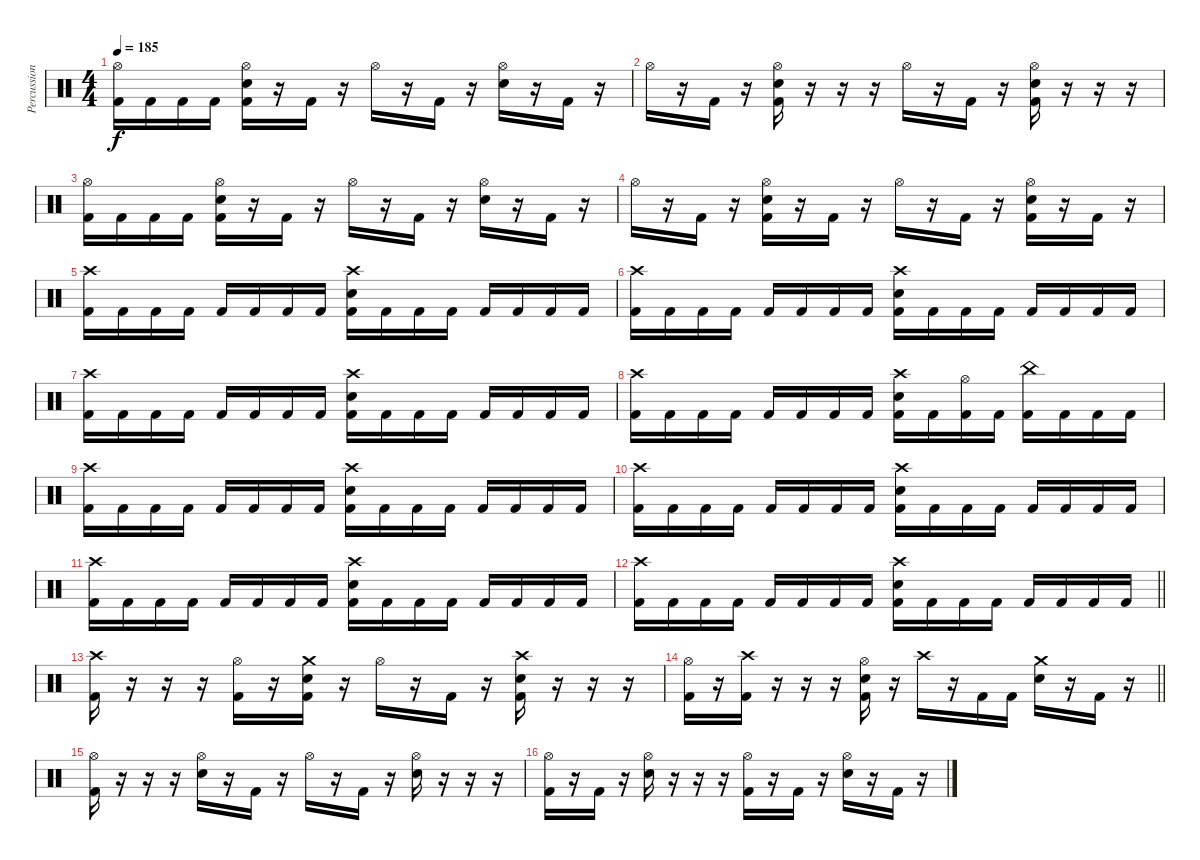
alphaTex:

\track ("Percussion" "Percussion") {instrument percussion}
\staff {score}
\articulation defaults
\ts (4 4)
\tempo 185
\clef neutral
\ks c
("Hi-Hat (open)" "Kick (hit) 2").16{dy f} "Kick (hit) 2".16 "Kick (hit) 2".16 "Kick (hit) 2".16 ("Hi-Hat (open)" "Electric Snare (hit)" "Kick (hit) 2").16 r.16 "Kick (hit) 2".16 r.16 "Hi-Hat (open)".16 r.16 "Kick (hit) 2".16 r.16 ("Hi-Hat (open)" "Electric Snare (hit)").16 r.16 "Kick (hit) 2".16 r.16 |
"Hi-Hat (open)".16 r.16 "Kick (hit) 2".16 r.16 ("Hi-Hat (open)" "Electric Snare (hit)" "Kick (hit) 2").16 r.16 r.16 r.16 "Hi-Hat (open)".16 r.16 "Kick (hit) 2".16 r.16 ("Hi-Hat (open)" "Electric Snare (hit)" "Kick (hit) 2").16 r.16 r.16 r.16 |
("Hi-Hat (open)" "Kick (hit) 2").16 "Kick (hit) 2".16 "Kick (hit) 2".16 "Kick (hit) 2".16 ("Hi-Hat (open)" "Electric Snare (hit)" "Kick (hit) 2").16 r.16 "Kick (hit) 2".16 r.16 "Hi-Hat (open)".16 r.16 "Kick (hit) 2".16 r.16 ("Hi-Hat (open)" "Electric Snare (hit)").16 r.16 "Kick (hit) 2".16 r.16 |
"Hi-Hat (open)".16 r.16 "Kick (hit) 2".16 r.16 ("Hi-Hat (open)" "Electric Snare (hit)" "Kick (hit) 2").16 r.16 "Kick (hit) 2".16 r.16 "Hi-Hat (open)".16 r.16 "Kick (hit) 2".16 r.16 ("Hi-Hat (open)" "Electric Snare (hit)" "Kick (hit) 2").16 r.16 "Kick (hit) 2".16 r.16 |
("Crash high (hit)" "Kick (hit) 2").16 "Kick (hit) 2".16 "Kick (hit) 2".16 "Kick (hit) 2".16 "Kick (hit) 2".16 "Kick (hit) 2".16 "Kick (hit) 2".16 "Kick (hit) 2".16 ("Crash high (hit)" "Electric Snare (hit)" "Kick (hit) 2").16 "Kick (hit) 2".16 "Kick (hit) 2".16 "Kick (hit) 2".16 "Kick (hit) 2".16 "Kick (hit) 2".16 "Kick (hit) 2".16 "Kick (hit) 2".16 |
("Crash high (hit)" "Kick (hit) 2").16 "Kick (hit) 2".16 "Kick (hit) 2".16 "Kick (hit) 2".16 "Kick (hit) 2".16 "Kick (hit) 2".16 "Kick (hit) 2".16 "Kick (hit) 2".16 ("Crash high (hit)" "Electric Snare (hit)" "Kick (hit) 2").16 "Kick (hit) 2".16 "Kick (hit) 2".16 "Kick (hit) 2".16 "Kick (hit) 2".16 "Kick (hit) 2".16 "Kick (hit) 2".16 "Kick (hit) 2".16 |
("Crash high (hit)" "Kick (hit) 2").16 "Kick (hit) 2".16 "Kick (hit) 2".16 "Kick (hit) 2".16 "Kick (hit) 2".16 "Kick (hit) 2".16 "Kick (hit) 2".16 "Kick (hit) 2".16 ("Crash high (hit)" "Electric Snare (hit)" "Kick (hit) 2").16 "Kick (hit) 2".16 "Kick (hit) 2".16 "Kick (hit) 2".16 "Kick (hit) 2".16 "Kick (hit) 2".16 "Kick (hit) 2".16 "Kick (hit) 2".16 |
("Crash high (hit)" "Kick (hit) 2").16 "Kick (hit) 2".16 "Kick (hit) 2".16 "Kick (hit) 2".16 "Kick (hit) 2".16 "Kick (hit) 2".16 "Kick (hit) 2".16 "Kick (hit) 2".16 ("Crash high (hit)" "Electric Snare (hit)" "Kick (hit) 2").16 "Kick (hit) 2".16 ("Hi-Hat (open)" "Kick (hit) 2").16 "Kick (hit) 2".16 ("China (hit)" "Kick (hit) 2").16 "Kick (hit) 2".16 "Kick (hit) 2".16 "Kick (hit) 2".16 |
("Crash high (hit)" "Kick (hit) 2").16 "Kick (hit) 2".16 "Kick (hit) 2".16 "Kick (hit) 2".16 "Kick (hit) 2".16 "Kick (hit) 2".16 "Kick (hit) 2".16 "Kick (hit) 2".16 ("Crash high (hit)" "Electric Snare (hit)" "Kick (hit) 2").16 "Kick (hit) 2".16 "Kick (hit) 2".16 "Kick (hit) 2".16 "Kick (hit) 2".16 "Kick (hit) 2".16 "Kick (hit) 2".16 "Kick (hit) 2".16 |
("Crash high (hit)" "Kick (hit) 2").16 "Kick (hit) 2".16 "Kick (hit) 2".16 "Kick (hit) 2".16 "Kick (hit) 2".16 "Kick (hit) 2".16 "Kick (hit) 2".16 "Kick (hit) 2".16 ("Crash high (hit)" "Electric Snare (hit)" "Kick (hit) 2").16 "Kick (hit) 2".16 "Kick (hit) 2".16 "Kick (hit) 2".16 "Kick (hit) 2".16 "Kick (hit) 2".16 "Kick (hit) 2".16 "Kick (hit) 2".16 |
("Crash high (hit)" "Kick (hit) 2").16 "Kick (hit) 2".16 "Kick (hit) 2".16 "Kick (hit) 2".16 "Kick (hit) 2".16 "Kick (hit) 2".16 "Kick (hit) 2".16 "Kick (hit) 2".16 ("Crash high (hit)" "Electric Snare (hit)" "Kick (hit) 2").16 "Kick (hit) 2".16 "Kick (hit) 2".16 "Kick (hit) 2".16 "Kick (hit) 2".16 "Kick (hit) 2".16 "Kick (hit) 2".16 "Kick (hit) 2".16 |
\barLineRight lightlight
("Crash high (hit)" "Kick (hit) 2").16 "Kick (hit) 2".16 "Kick (hit) 2".16 "Kick (hit) 2".16 "Kick (hit) 2".16 "Kick (hit) 2".16 "Kick (hit) 2".16 "Kick (hit) 2".16 ("Crash high (hit)" "Electric Snare (hit)" "Kick (hit) 2").16 "Kick (hit) 2".16 "Kick (hit) 2".16 "Kick (hit) 2".16 "Kick (hit) 2".16 "Kick (hit) 2".16 "Kick (hit) 2".16 "Kick (hit) 2".16 |
("Crash high (hit)" "Kick (hit) 2").16 r.16 r.16 r.16 ("Hi-Hat (open)" "Kick (hit) 2").16 r.16 ("Crash medium (hit)" "Electric Snare (hit)" "Kick (hit) 2").16 r.16 "Hi-Hat (open)".16 r.16 "Kick (hit) 2".16 r.16 ("Crash high (hit)" "Electric Snare (hit)" "Kick (hit) 2").16 r.16 r.16 r.16 |
\barLineRight lightlight
("Hi-Hat (open)" "Kick (hit) 2").16 r.16 ("Crash high (hit)" "Kick (hit) 2").16 r.16 r.16 r.16 ("Hi-Hat (open)" "Electric Snare (hit)" "Kick (hit) 2").16 r.16 "Crash high (hit)".16 r.16 "Kick (hit) 2".16 "Kick (hit) 2".16 ("Crash medium (hit)" "Electric Snare (hit)").16 r.16 "Kick (hit) 2".16 r.16 |
("Hi-Hat (open)" "Kick (hit) 2").16 r.16 r.16 r.16 ("Hi-Hat (open)" "Electric Snare (hit)").16 r.16 "Kick (hit) 2".16 r.16 "Hi-Hat (open)".16 r.16 "Kick (hit) 2".16 r.16 ("Hi-Hat (open)" "Electric Snare (hit)").16 r.16 r.16 r.16 |
("Hi-Hat (open)" "Kick (hit) 2").16 r.16 "Kick (hit) 2".16 r.16 ("Hi-Hat (open)" "Electric Snare (hit)").16 r.16 r.16 r.16 ("Hi-Hat (open)" "Kick (hit) 2").16 r.16 "Kick (hit) 2".16 r.16 ("Hi-Hat (open)" "Electric Snare (hit)").16 r.16 "Kick (hit) 2".16 r.16
